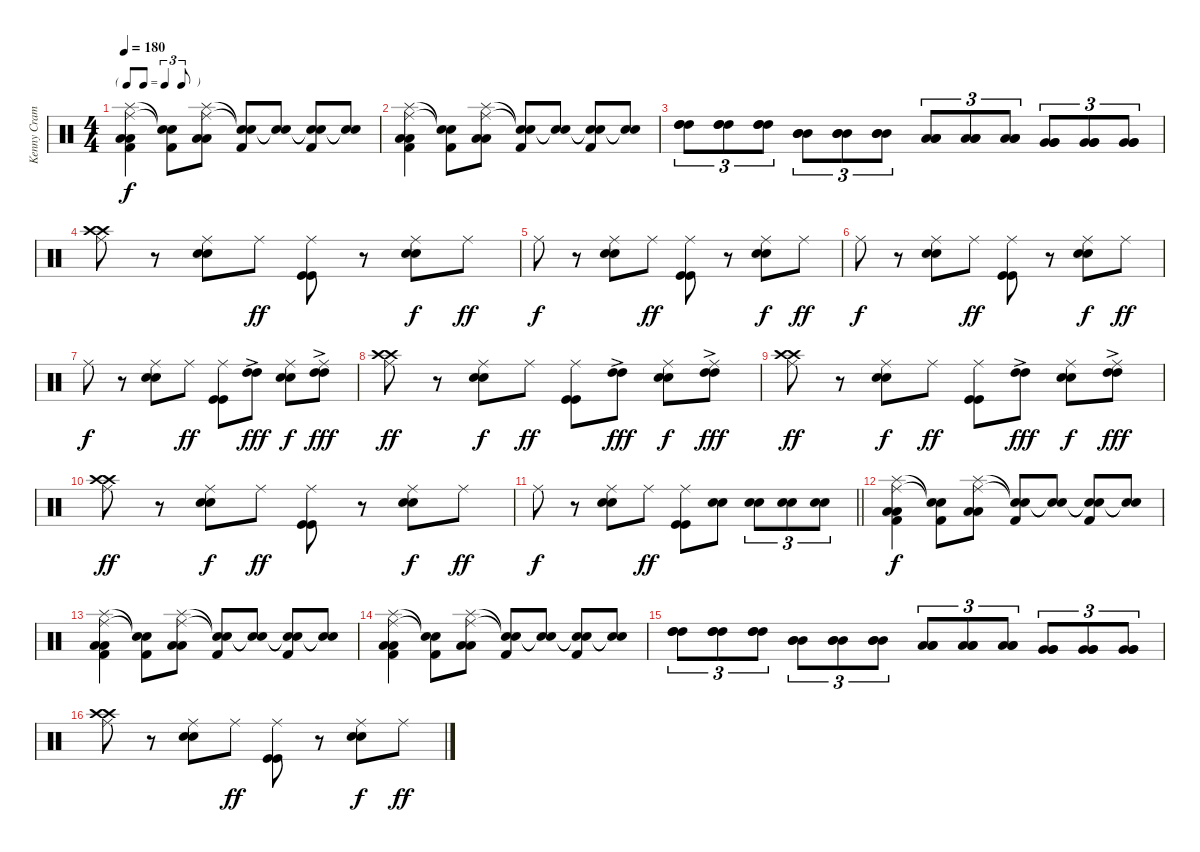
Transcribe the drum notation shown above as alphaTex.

\track ("Kenny Cramme" "Kenny Cram") {instrument percussion}
\staff {score}
\articulation defaults
\ts (4 4)
\tf triplet8th
\tempo 180
\clef neutral
\ks c
("Ride (middle)" "Splash (hit)" "Low Floor Tom (hit)" "Low Floor Tom (hit)" "Kick (hit) 2").4{dy f} ("Snare (hit)"{t} "Snare (hit)"{t} "Kick (hit) 2").8 ("Ride (middle)" "Splash (hit)" "Low Floor Tom (hit)" "Low Floor Tom (hit)").8 ("Snare (hit)"{t} "Snare (hit)"{t} "Kick (hit) 2").8 ("Snare (hit)"{t} "Snare (hit)"{t}).8 ("Snare (hit)"{t} "Snare (hit)"{t} "Kick (hit) 2").8 ("Snare (hit)"{t} "Snare (hit)"{t}).8 |
("Ride (middle)" "Splash (hit)" "Low Floor Tom (hit)" "Low Floor Tom (hit)" "Kick (hit) 2").4 ("Snare (hit)"{t} "Snare (hit)"{t} "Kick (hit) 2").8 ("Ride (middle)" "Splash (hit)" "Low Floor Tom (hit)" "Low Floor Tom (hit)").8 ("Snare (hit)"{t} "Snare (hit)"{t} "Kick (hit) 2").8 ("Snare (hit)"{t} "Snare (hit)"{t}).8 ("Snare (hit)"{t} "Snare (hit)"{t} "Kick (hit) 2").8 ("Snare (hit)"{t} "Snare (hit)"{t}).8 |
("High Tom (hit)" "High Tom (hit)" "High Tom (hit)").8{tu (3 2)} ("High Tom (hit)" "High Tom (hit)" "High Tom (hit)").8{tu (3 2)} ("High Tom (hit)" "High Tom (hit)" "High Tom (hit)").8{tu (3 2)} ("Mid Tom (hit)" "Mid Tom (hit)" "Mid Tom (hit)").8{tu (3 2)} ("Mid Tom (hit)" "Mid Tom (hit)" "Mid Tom (hit)").8{tu (3 2)} ("Mid Tom (hit)" "Mid Tom (hit)" "Mid Tom (hit)").8{tu (3 2)} ("Low Tom (hit)" "Low Tom (hit)" "Low Tom (hit)").8{tu (3 2)} ("Low Tom (hit)" "Low Tom (hit)" "Low Tom (hit)").8{tu (3 2)} ("Low Tom (hit)" "Low Tom (hit)" "Low Tom (hit)").8{tu (3 2)} ("Very Low Tom (hit)" "Very Low Tom (hit)" "Very Low Tom (hit)").8{tu (3 2)} ("Very Low Tom (hit)" "Very Low Tom (hit)" "Very Low Tom (hit)").8{tu (3 2)} ("Very Low Tom (hit)" "Very Low Tom (hit)" "Very Low Tom (hit)").8{tu (3 2)} |
("Ride (middle)" "Crash high (hit)" "Crash high (hit)").8 r.8 ("Ride (middle)" "Snare (hit) 2" "Snare (hit) 2").8 "Ride (middle)".8{dy ff} ("Ride (middle)" "Kick (hit)" "Kick (hit)").8 r.8 ("Ride (middle)" "Snare (hit) 2" "Snare (hit) 2").8{dy f} "Ride (middle)".8{dy ff} |
"Ride (middle)".8{dy f} r.8 ("Ride (middle)" "Snare (hit) 2" "Snare (hit) 2").8 "Ride (middle)".8{dy ff} ("Ride (middle)" "Kick (hit)" "Kick (hit)").8 r.8 ("Ride (middle)" "Snare (hit) 2" "Snare (hit) 2").8{dy f} "Ride (middle)".8{dy ff} |
"Ride (middle)".8{dy f} r.8 ("Ride (middle)" "Snare (hit) 2" "Snare (hit) 2").8 "Ride (middle)".8{dy ff} ("Ride (middle)" "Kick (hit)" "Kick (hit)").8 r.8 ("Ride (middle)" "Snare (hit) 2" "Snare (hit) 2").8{dy f} "Ride (middle)".8{dy ff} |
"Ride (middle)".8{dy f} r.8 ("Ride (middle)" "Snare (hit) 2" "Snare (hit) 2").8 "Ride (middle)".8{dy ff} ("Ride (middle)" "Kick (hit)" "Kick (hit)").8 ("High Tom (hit)"{ac} "High Tom (hit)"{ac}).8{dy fff} ("Ride (middle)" "Snare (hit) 2" "Snare (hit) 2").8{dy f} ("Ride (middle)" "High Tom (hit)"{ac} "High Tom (hit)"{ac}).8{dy fff} |
("Ride (middle)" "Crash high (hit)" "Crash high (hit)").8{dy ff} r.8 ("Ride (middle)" "Snare (hit) 2" "Snare (hit) 2").8{dy f} "Ride (middle)".8{dy ff} ("Ride (middle)" "Kick (hit)" "Kick (hit)").8 ("High Tom (hit)"{ac} "High Tom (hit)"{ac}).8{dy fff} ("Ride (middle)" "Snare (hit) 2" "Snare (hit) 2").8{dy f} ("Ride (middle)" "High Tom (hit)"{ac} "High Tom (hit)"{ac}).8{dy fff} |
("Ride (middle)" "Crash high (hit)" "Crash high (hit)").8{dy ff} r.8 ("Ride (middle)" "Snare (hit) 2" "Snare (hit) 2").8{dy f} "Ride (middle)".8{dy ff} ("Ride (middle)" "Kick (hit)" "Kick (hit)").8 ("High Tom (hit)"{ac} "High Tom (hit)"{ac}).8{dy fff} ("Ride (middle)" "Snare (hit) 2" "Snare (hit) 2").8{dy f} ("Ride (middle)" "High Tom (hit)"{ac} "High Tom (hit)"{ac}).8{dy fff} |
("Ride (middle)" "Crash high (hit)" "Crash high (hit)").8{dy ff} r.8 ("Ride (middle)" "Snare (hit) 2" "Snare (hit) 2").8{dy f} "Ride (middle)".8{dy ff} ("Ride (middle)" "Kick (hit)" "Kick (hit)").8 r.8 ("Ride (middle)" "Snare (hit) 2" "Snare (hit) 2").8{dy f} "Ride (middle)".8{dy ff} |
\barLineRight lightlight "Ride (middle)".8{dy f}
r.8 ("Ride (middle)" "Snare (hit) 2" "Snare (hit) 2").8 "Ride (middle)".8{dy ff} ("Ride (middle)" "Kick (hit)" "Kick (hit)").8 ("Snare (hit) 2" "Snare (hit) 2").8 ("Snare (hit) 2" "Snare (hit) 2").8{tu (3 2)} ("Snare (hit) 2" "Snare (hit) 2").8{tu (3 2)} ("Snare (hit) 2" "Snare (hit) 2").8{tu (3 2)} |
("Ride (middle)" "Splash (hit)" "Low Floor Tom (hit)" "Low Floor Tom (hit)" "Kick (hit) 2").4{dy f} ("Snare (hit)"{t} "Snare (hit)"{t} "Kick (hit) 2").8 ("Ride (middle)" "Splash (hit)" "Low Floor Tom (hit)" "Low Floor Tom (hit)").8 ("Snare (hit)"{t} "Snare (hit)"{t} "Kick (hit) 2").8 ("Snare (hit)"{t} "Snare (hit)"{t}).8 ("Snare (hit)"{t} "Snare (hit)"{t} "Kick (hit) 2").8 ("Snare (hit)"{t} "Snare (hit)"{t}).8 |
("Ride (middle)" "Splash (hit)" "Low Floor Tom (hit)" "Low Floor Tom (hit)" "Kick (hit) 2").4 ("Snare (hit)"{t} "Snare (hit)"{t} "Kick (hit) 2").8 ("Ride (middle)" "Splash (hit)" "Low Floor Tom (hit)" "Low Floor Tom (hit)").8 ("Snare (hit)"{t} "Snare (hit)"{t} "Kick (hit) 2").8 ("Snare (hit)"{t} "Snare (hit)"{t}).8 ("Snare (hit)"{t} "Snare (hit)"{t} "Kick (hit) 2").8 ("Snare (hit)"{t} "Snare (hit)"{t}).8 |
("Ride (middle)" "Splash (hit)" "Low Floor Tom (hit)" "Low Floor Tom (hit)" "Kick (hit) 2").4 ("Snare (hit)"{t} "Snare (hit)"{t} "Kick (hit) 2").8 ("Ride (middle)" "Splash (hit)" "Low Floor Tom (hit)" "Low Floor Tom (hit)").8 ("Snare (hit)"{t} "Snare (hit)"{t} "Kick (hit) 2").8 ("Snare (hit)"{t} "Snare (hit)"{t}).8 ("Snare (hit)"{t} "Snare (hit)"{t} "Kick (hit) 2").8 ("Snare (hit)"{t} "Snare (hit)"{t}).8 |
("High Tom (hit)" "High Tom (hit)" "High Tom (hit)").8{tu (3 2)} ("High Tom (hit)" "High Tom (hit)" "High Tom (hit)").8{tu (3 2)} ("High Tom (hit)" "High Tom (hit)" "High Tom (hit)").8{tu (3 2)} ("Mid Tom (hit)" "Mid Tom (hit)" "Mid Tom (hit)").8{tu (3 2)} ("Mid Tom (hit)" "Mid Tom (hit)" "Mid Tom (hit)").8{tu (3 2)} ("Mid Tom (hit)" "Mid Tom (hit)" "Mid Tom (hit)").8{tu (3 2)} ("Low Tom (hit)" "Low Tom (hit)" "Low Tom (hit)").8{tu (3 2)} ("Low Tom (hit)" "Low Tom (hit)" "Low Tom (hit)").8{tu (3 2)} ("Low Tom (hit)" "Low Tom (hit)" "Low Tom (hit)").8{tu (3 2)} ("Very Low Tom (hit)" "Very Low Tom (hit)" "Very Low Tom (hit)").8{tu (3 2)} ("Very Low Tom (hit)" "Very Low Tom (hit)" "Very Low Tom (hit)").8{tu (3 2)} ("Very Low Tom (hit)" "Very Low Tom (hit)" "Very Low Tom (hit)").8{tu (3 2)} |
("Ride (middle)" "Crash high (hit)" "Crash high (hit)").8 r.8 ("Ride (middle)" "Snare (hit) 2" "Snare (hit) 2").8 "Ride (middle)".8{dy ff} ("Ride (middle)" "Kick (hit)" "Kick (hit)").8 r.8 ("Ride (middle)" "Snare (hit) 2" "Snare (hit) 2").8{dy f} "Ride (middle)".8{dy ff}
